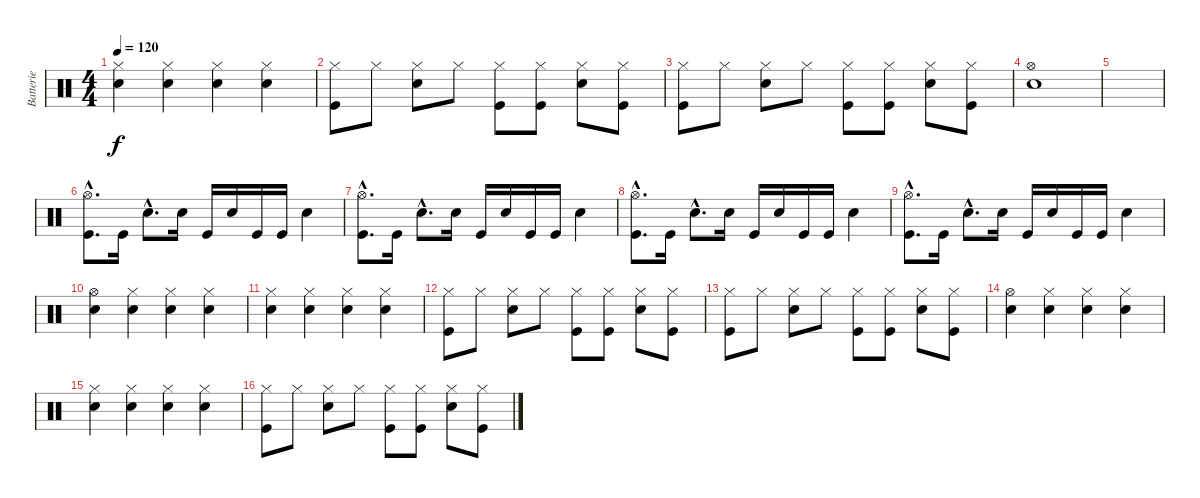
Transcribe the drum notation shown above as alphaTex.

\track ("Batterie" "Batterie") {instrument percussion}
\staff {score}
\articulation defaults
\ts (4 4)
\tempo 120
\clef neutral
\ks c
("Hi-Hat (closed)" "Snare (hit) 2").4{dy f} ("Hi-Hat (closed)" "Snare (hit) 2").4 ("Hi-Hat (closed)" "Snare (hit) 2").4 ("Hi-Hat (closed)" "Snare (hit) 2").4 |
("Hi-Hat (closed)" "Kick (hit)").8 "Hi-Hat (closed)".8 ("Hi-Hat (closed)" "Snare (hit) 2").8 "Hi-Hat (closed)".8 ("Hi-Hat (closed)" "Kick (hit)").8 ("Hi-Hat (closed)" "Kick (hit)").8 ("Hi-Hat (closed)" "Snare (hit) 2").8 ("Hi-Hat (closed)" "Kick (hit)").8 |
("Hi-Hat (closed)" "Kick (hit)").8 "Hi-Hat (closed)".8 ("Hi-Hat (closed)" "Snare (hit) 2").8 "Hi-Hat (closed)".8 ("Hi-Hat (closed)" "Kick (hit)").8 ("Hi-Hat (closed)" "Kick (hit)").8 ("Hi-Hat (closed)" "Snare (hit) 2").8 ("Hi-Hat (closed)" "Kick (hit)").8 |
("Hi-Hat (open)" "Snare (hit) 2").1 |
|
("Hi-Hat (open)"{hac} "Kick (hit)"{hac}).8{d} "Kick (hit)".16 "Snare (hit) 2"{hac}.8{d} "Snare (hit) 2".16 "Kick (hit)".16 "Snare (hit) 2".16 "Kick (hit)".16 "Kick (hit)".16 "Snare (hit) 2".4 |
("Hi-Hat (open)"{hac} "Kick (hit)"{hac}).8{d} "Kick (hit)".16 "Snare (hit) 2"{hac}.8{d} "Snare (hit) 2".16 "Kick (hit)".16 "Snare (hit) 2".16 "Kick (hit)".16 "Kick (hit)".16 "Snare (hit) 2".4 |
("Hi-Hat (open)"{hac} "Kick (hit)"{hac}).8{d} "Kick (hit)".16 "Snare (hit) 2"{hac}.8{d} "Snare (hit) 2".16 "Kick (hit)".16 "Snare (hit) 2".16 "Kick (hit)".16 "Kick (hit)".16 "Snare (hit) 2".4 |
("Hi-Hat (open)"{hac} "Kick (hit)"{hac}).8{d} "Kick (hit)".16 "Snare (hit) 2"{hac}.8{d} "Snare (hit) 2".16 "Kick (hit)".16 "Snare (hit) 2".16 "Kick (hit)".16 "Kick (hit)".16 "Snare (hit) 2".4 |
("Hi-Hat (open)" "Snare (hit) 2").4 ("Hi-Hat (closed)" "Snare (hit) 2").4 ("Hi-Hat (closed)" "Snare (hit) 2").4 ("Hi-Hat (closed)" "Snare (hit) 2").4 |
("Hi-Hat (closed)" "Snare (hit) 2").4 ("Hi-Hat (closed)" "Snare (hit) 2").4 ("Hi-Hat (closed)" "Snare (hit) 2").4 ("Hi-Hat (closed)" "Snare (hit) 2").4 |
("Hi-Hat (closed)" "Kick (hit)").8 "Hi-Hat (closed)".8 ("Hi-Hat (closed)" "Snare (hit) 2").8 "Hi-Hat (closed)".8 ("Hi-Hat (closed)" "Kick (hit)").8 ("Hi-Hat (closed)" "Kick (hit)").8 ("Hi-Hat (closed)" "Snare (hit) 2").8 ("Hi-Hat (closed)" "Kick (hit)").8 |
("Hi-Hat (closed)" "Kick (hit)").8 "Hi-Hat (closed)".8 ("Hi-Hat (closed)" "Snare (hit) 2").8 "Hi-Hat (closed)".8 ("Hi-Hat (closed)" "Kick (hit)").8 ("Hi-Hat (closed)" "Kick (hit)").8 ("Hi-Hat (closed)" "Snare (hit) 2").8 ("Hi-Hat (closed)" "Kick (hit)").8 |
("Hi-Hat (open)" "Snare (hit) 2").4 ("Hi-Hat (closed)" "Snare (hit) 2").4 ("Hi-Hat (closed)" "Snare (hit) 2").4 ("Hi-Hat (closed)" "Snare (hit) 2").4 |
("Hi-Hat (closed)" "Snare (hit) 2").4 ("Hi-Hat (closed)" "Snare (hit) 2").4 ("Hi-Hat (closed)" "Snare (hit) 2").4 ("Hi-Hat (closed)" "Snare (hit) 2").4 |
("Hi-Hat (closed)" "Kick (hit)").8 "Hi-Hat (closed)".8 ("Hi-Hat (closed)" "Snare (hit) 2").8 "Hi-Hat (closed)".8 ("Hi-Hat (closed)" "Kick (hit)").8 ("Hi-Hat (closed)" "Kick (hit)").8 ("Hi-Hat (closed)" "Snare (hit) 2").8 ("Hi-Hat (closed)" "Kick (hit)").8
